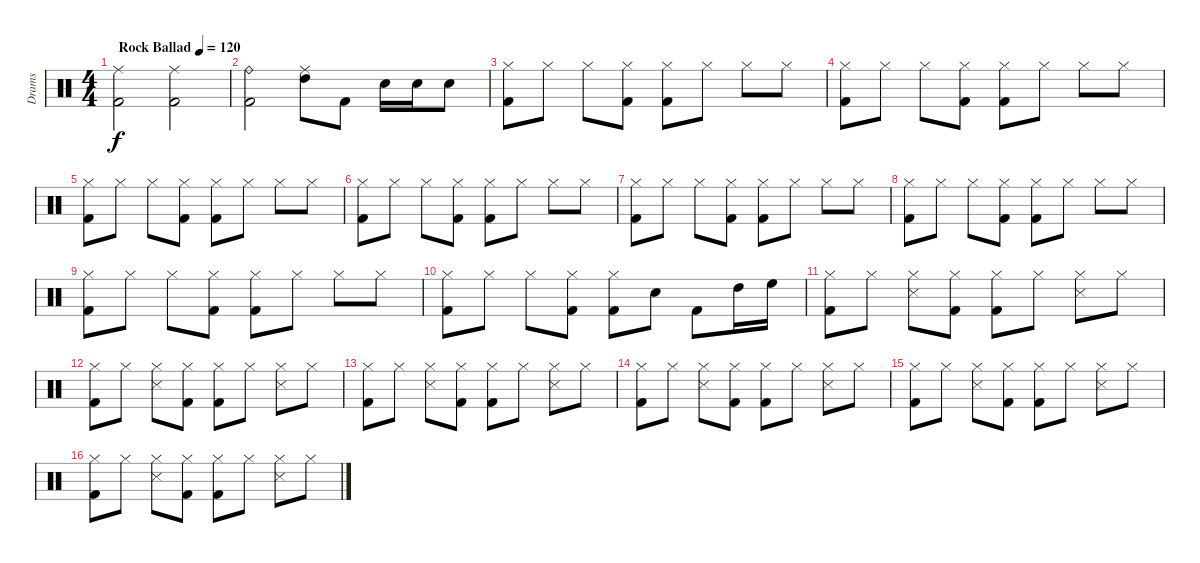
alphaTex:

\track ("Drams" "Drams") {instrument percussion}
\staff {score}
\articulation defaults
\ts (4 4)
\tempo (120 "Rock Ballad")
\clef neutral
\ks aminor
("Kick (hit) 2" "Ride (middle)").2{dy f} ("Kick (hit) 2" "Ride (middle)").2 |
("Kick (hit) 2" "Ride (bell)").2 ("High Tom (hit)" "Ride (middle)").8 "Kick (hit) 2".8 "Electric Snare (hit)".16 "Electric Snare (hit)".16 "Electric Snare (hit)".8 |
("Hi-Hat (closed)" "Kick (hit) 2").8 "Hi-Hat (closed)".8 "Hi-Hat (closed)".8 ("Hi-Hat (closed)" "Kick (hit) 2").8 ("Hi-Hat (closed)" "Kick (hit) 2").8 "Hi-Hat (closed)".8 "Hi-Hat (closed)".8 "Hi-Hat (closed)".8 |
("Hi-Hat (closed)" "Kick (hit) 2").8 "Hi-Hat (closed)".8 "Hi-Hat (closed)".8 ("Hi-Hat (closed)" "Kick (hit) 2").8 ("Hi-Hat (closed)" "Kick (hit) 2").8 "Hi-Hat (closed)".8 "Hi-Hat (closed)".8 "Hi-Hat (closed)".8 |
("Hi-Hat (closed)" "Kick (hit) 2").8 "Hi-Hat (closed)".8 "Hi-Hat (closed)".8 ("Hi-Hat (closed)" "Kick (hit) 2").8 ("Hi-Hat (closed)" "Kick (hit) 2").8 "Hi-Hat (closed)".8 "Hi-Hat (closed)".8 "Hi-Hat (closed)".8 |
("Hi-Hat (closed)" "Kick (hit) 2").8 "Hi-Hat (closed)".8 "Hi-Hat (closed)".8 ("Hi-Hat (closed)" "Kick (hit) 2").8 ("Hi-Hat (closed)" "Kick (hit) 2").8 "Hi-Hat (closed)".8 "Hi-Hat (closed)".8 "Hi-Hat (closed)".8 |
("Hi-Hat (closed)" "Kick (hit) 2").8 "Hi-Hat (closed)".8 "Hi-Hat (closed)".8 ("Hi-Hat (closed)" "Kick (hit) 2").8 ("Hi-Hat (closed)" "Kick (hit) 2").8 "Hi-Hat (closed)".8 "Hi-Hat (closed)".8 "Hi-Hat (closed)".8 |
("Hi-Hat (closed)" "Kick (hit) 2").8 "Hi-Hat (closed)".8 "Hi-Hat (closed)".8 ("Hi-Hat (closed)" "Kick (hit) 2").8 ("Hi-Hat (closed)" "Kick (hit) 2").8 "Hi-Hat (closed)".8 "Hi-Hat (closed)".8 "Hi-Hat (closed)".8 |
("Hi-Hat (closed)" "Kick (hit) 2").8 "Hi-Hat (closed)".8 "Hi-Hat (closed)".8 ("Hi-Hat (closed)" "Kick (hit) 2").8 ("Hi-Hat (closed)" "Kick (hit) 2").8 "Hi-Hat (closed)".8 "Hi-Hat (closed)".8 "Hi-Hat (closed)".8 |
("Hi-Hat (closed)" "Kick (hit) 2").8 "Hi-Hat (closed)".8 "Hi-Hat (closed)".8 ("Hi-Hat (closed)" "Kick (hit) 2").8 ("Hi-Hat (closed)" "Kick (hit) 2").8 "Electric Snare (hit)".8 "Kick (hit) 2".8 "High Tom (hit)".16 "High Floor Tom (hit)".16 |
("Hi-Hat (closed)" "Kick (hit) 2").8 "Hi-Hat (closed)".8 ("Hi-Hat (closed)" "Snare (side stick) 3").8 ("Hi-Hat (closed)" "Kick (hit) 2").8 ("Hi-Hat (closed)" "Kick (hit) 2").8 "Hi-Hat (closed)".8 ("Hi-Hat (closed)" "Snare (side stick) 3").8 "Hi-Hat (closed)".8 |
("Hi-Hat (closed)" "Kick (hit) 2").8 "Hi-Hat (closed)".8 ("Hi-Hat (closed)" "Snare (side stick) 3").8 ("Hi-Hat (closed)" "Kick (hit) 2").8 ("Hi-Hat (closed)" "Kick (hit) 2").8 "Hi-Hat (closed)".8 ("Hi-Hat (closed)" "Snare (side stick) 3").8 "Hi-Hat (closed)".8 |
("Hi-Hat (closed)" "Kick (hit) 2").8 "Hi-Hat (closed)".8 ("Hi-Hat (closed)" "Snare (side stick) 3").8 ("Hi-Hat (closed)" "Kick (hit) 2").8 ("Hi-Hat (closed)" "Kick (hit) 2").8 "Hi-Hat (closed)".8 ("Hi-Hat (closed)" "Snare (side stick) 3").8 "Hi-Hat (closed)".8 |
("Hi-Hat (closed)" "Kick (hit) 2").8 "Hi-Hat (closed)".8 ("Hi-Hat (closed)" "Snare (side stick) 3").8 ("Hi-Hat (closed)" "Kick (hit) 2").8 ("Hi-Hat (closed)" "Kick (hit) 2").8 "Hi-Hat (closed)".8 ("Hi-Hat (closed)" "Snare (side stick) 3").8 "Hi-Hat (closed)".8 |
("Hi-Hat (closed)" "Kick (hit) 2").8 "Hi-Hat (closed)".8 ("Hi-Hat (closed)" "Snare (side stick) 3").8 ("Hi-Hat (closed)" "Kick (hit) 2").8 ("Hi-Hat (closed)" "Kick (hit) 2").8 "Hi-Hat (closed)".8 ("Hi-Hat (closed)" "Snare (side stick) 3").8 "Hi-Hat (closed)".8 |
("Hi-Hat (closed)" "Kick (hit) 2").8 "Hi-Hat (closed)".8 ("Hi-Hat (closed)" "Snare (side stick) 3").8 ("Hi-Hat (closed)" "Kick (hit) 2").8 ("Hi-Hat (closed)" "Kick (hit) 2").8 "Hi-Hat (closed)".8 ("Hi-Hat (closed)" "Snare (side stick) 3").8 "Hi-Hat (closed)".8
